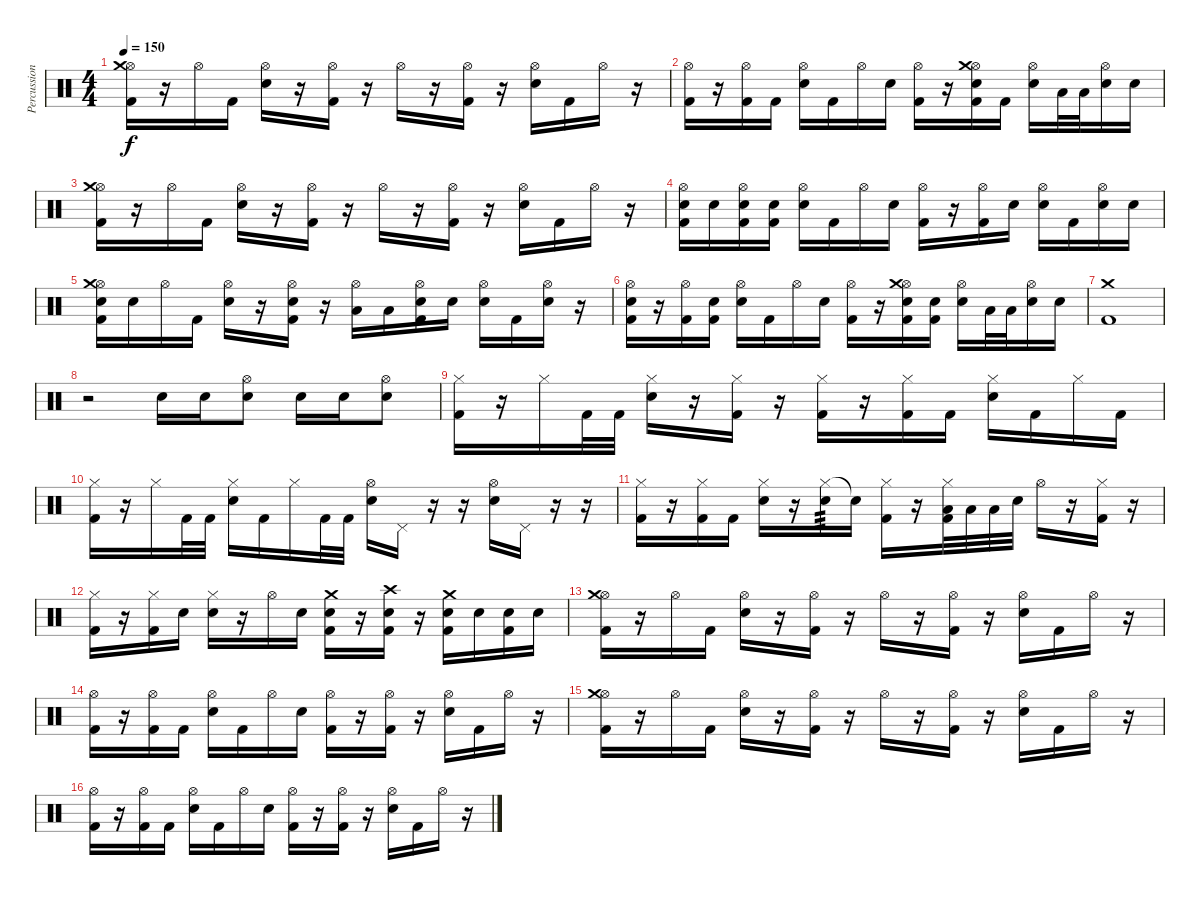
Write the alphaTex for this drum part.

\track ("Percussion" "Percussion") {instrument percussion}
\staff {score}
\articulation defaults
\ts (4 4)
\tempo 150
\clef neutral
\ks c
("Hi-Hat (open)" "Crash medium (hit)" "Kick (hit) 2").16{dy f} r.16 "Hi-Hat (open)".16 "Kick (hit) 2".16 ("Hi-Hat (open)" "Electric Snare (hit)").16 r.16 ("Hi-Hat (open)" "Kick (hit) 2").16 r.16 "Hi-Hat (open)".16 r.16 ("Hi-Hat (open)" "Kick (hit) 2").16 r.16 ("Hi-Hat (open)" "Electric Snare (hit)").16 "Kick (hit) 2".16 "Hi-Hat (open)".16 r.16 |
("Hi-Hat (open)" "Kick (hit) 2").16 r.16 ("Hi-Hat (open)" "Kick (hit) 2").16 "Kick (hit) 2".16 ("Hi-Hat (open)" "Electric Snare (hit)").16 "Kick (hit) 2".16 "Hi-Hat (open)".16 "Electric Snare (hit)".16 ("Hi-Hat (open)" "Kick (hit) 2").16 r.16 ("Hi-Hat (open)" "Crash medium (hit)" "Electric Snare (hit)" "Kick (hit) 2").16 "Kick (hit) 2".16 ("Hi-Hat (open)" "Electric Snare (hit)").16 "Low Tom (hit)".32 "Low Tom (hit)".32 ("Hi-Hat (open)" "Electric Snare (hit)").16 "Electric Snare (hit)".16 |
("Hi-Hat (open)" "Crash medium (hit)" "Kick (hit) 2").16 r.16 "Hi-Hat (open)".16 "Kick (hit) 2".16 ("Hi-Hat (open)" "Electric Snare (hit)").16 r.16 ("Hi-Hat (open)" "Kick (hit) 2").16 r.16 "Hi-Hat (open)".16 r.16 ("Hi-Hat (open)" "Kick (hit) 2").16 r.16 ("Hi-Hat (open)" "Electric Snare (hit)").16 "Kick (hit) 2".16 "Hi-Hat (open)".16 r.16 |
("Hi-Hat (open)" "Electric Snare (hit)" "Kick (hit) 2").16 "Electric Snare (hit)".16 ("Hi-Hat (open)" "Electric Snare (hit)" "Kick (hit) 2").16 ("Electric Snare (hit)" "Kick (hit) 2").16 ("Hi-Hat (open)" "Electric Snare (hit)").16 "Kick (hit) 2".16 "Hi-Hat (open)".16 "Electric Snare (hit)".16 ("Hi-Hat (open)" "Kick (hit) 2").16 r.16 ("Hi-Hat (open)" "Kick (hit) 2").16 "Electric Snare (hit)".16 ("Hi-Hat (open)" "Electric Snare (hit)").16 "Kick (hit) 2".16 ("Hi-Hat (open)" "Electric Snare (hit)").16 "Electric Snare (hit)".16 |
("Hi-Hat (open)" "Crash medium (hit)" "Electric Snare (hit)" "Kick (hit) 2").16 "Electric Snare (hit)".16 "Hi-Hat (open)".16 "Kick (hit) 2".16 ("Hi-Hat (open)" "Electric Snare (hit)").16 r.16 ("Hi-Hat (open)" "Electric Snare (hit)" "Kick (hit) 2").16 r.16 ("Hi-Hat (open)" "Low Tom (hit)").16 "Low Tom (hit)".16 ("Hi-Hat (open)" "Electric Snare (hit)" "Kick (hit) 2").16 "Electric Snare (hit)".16 ("Hi-Hat (open)" "Electric Snare (hit)").16 "Kick (hit) 2".16 ("Hi-Hat (open)" "Electric Snare (hit)").16 r.16 |
("Hi-Hat (open)" "Electric Snare (hit)" "Kick (hit) 2").16 r.16 ("Hi-Hat (open)" "Kick (hit) 2").16 ("Electric Snare (hit)" "Kick (hit) 2").16 ("Hi-Hat (open)" "Electric Snare (hit)").16 "Kick (hit) 2".16 "Hi-Hat (open)".16 "Electric Snare (hit)".16 ("Hi-Hat (open)" "Kick (hit) 2").16 r.16 ("Hi-Hat (open)" "Crash medium (hit)" "Electric Snare (hit)" "Kick (hit) 2").16 ("Electric Snare (hit)" "Kick (hit) 2").16 ("Hi-Hat (open)" "Electric Snare (hit)").16 "Low Tom (hit)".32 "Low Tom (hit)".32 ("Hi-Hat (open)" "Electric Snare (hit)").16 "Electric Snare (hit)".16 |
("Crash medium (hit)" "Kick (hit) 2").1 |
r.2 "Electric Snare (hit)".16 "Electric Snare (hit)".16 ("Hi-Hat (open)" "Electric Snare (hit)").8 "Electric Snare (hit)".16 "Electric Snare (hit)".16 ("Hi-Hat (open)" "Electric Snare (hit)").8 |
("Hi-Hat (closed)" "Kick (hit) 2").16 r.16 "Hi-Hat (closed)".16 "Kick (hit) 2".32 "Kick (hit) 2".32 ("Hi-Hat (closed)" "Electric Snare (hit)").16 r.16 ("Hi-Hat (closed)" "Kick (hit) 2").16 r.16 ("Hi-Hat (closed)" "Kick (hit) 2").16 r.16 ("Hi-Hat (closed)" "Kick (hit) 2").16 "Kick (hit) 2".16 ("Hi-Hat (closed)" "Electric Snare (hit)").16 "Kick (hit) 2".16 "Hi-Hat (closed)".16 "Kick (hit) 2".16 |
("Hi-Hat (closed)" "Kick (hit) 2").16 r.16 "Hi-Hat (closed)".16 "Kick (hit) 2".32 "Kick (hit) 2".32 ("Hi-Hat (closed)" "Electric Snare (hit)").16 "Kick (hit) 2".16 "Hi-Hat (closed)".16 "Kick (hit) 2".32 "Kick (hit) 2".32 ("Hi-Hat (open)" "Electric Snare (hit)").16 "Pedal Hi-Hat (hit)".16 r.16 r.16 ("Hi-Hat (open)" "Electric Snare (hit)").16 "Pedal Hi-Hat (hit)".16 r.16 r.16 |
("Hi-Hat (closed)" "Kick (hit) 2").16 r.16 ("Hi-Hat (closed)" "Kick (hit) 2").16 "Kick (hit) 2".16 ("Hi-Hat (closed)" "Electric Snare (hit)").16 r.16 ("Hi-Hat (closed)" "Electric Snare (hit)").16{tp 3} "Snare (hit)"{t}.16 ("Hi-Hat (closed)" "Kick (hit) 2").16 r.16 ("Hi-Hat (closed)" "Low Tom (hit)" "Kick (hit) 2").32 "Low Tom (hit)".32 "Low Tom (hit)".32 "Electric Snare (hit)".32 "Hi-Hat (open)".16 r.16 ("Hi-Hat (closed)" "Kick (hit) 2").16 r.16 |
("Hi-Hat (closed)" "Kick (hit) 2").16 r.16 ("Hi-Hat (closed)" "Kick (hit) 2").16 "Electric Snare (hit)".16 ("Hi-Hat (closed)" "Electric Snare (hit)").16 r.16 "Hi-Hat (open)".16 "Electric Snare (hit)".16 ("Crash medium (hit)" "Electric Snare (hit)" "Kick (hit) 2").16 r.16 ("Crash high (hit)" "Electric Snare (hit)" "Kick (hit) 2").16 r.16 ("Crash medium (hit)" "Electric Snare (hit)" "Kick (hit) 2").16 "Electric Snare (hit)".16 ("Electric Snare (hit)" "Kick (hit) 2").16 "Electric Snare (hit)".16 |
("Hi-Hat (open)" "Crash medium (hit)" "Kick (hit) 2").16 r.16 "Hi-Hat (open)".16 "Kick (hit) 2".16 ("Hi-Hat (open)" "Electric Snare (hit)").16 r.16 ("Hi-Hat (open)" "Kick (hit) 2").16 r.16 "Hi-Hat (open)".16 r.16 ("Hi-Hat (open)" "Kick (hit) 2").16 r.16 ("Hi-Hat (open)" "Electric Snare (hit)").16 "Kick (hit) 2".16 "Hi-Hat (open)".16 r.16 |
("Hi-Hat (open)" "Kick (hit) 2").16 r.16 ("Hi-Hat (open)" "Kick (hit) 2").16 "Kick (hit) 2".16 ("Hi-Hat (open)" "Electric Snare (hit)").16 "Kick (hit) 2".16 "Hi-Hat (open)".16 "Electric Snare (hit)".16 ("Hi-Hat (open)" "Kick (hit) 2").16 r.16 ("Hi-Hat (open)" "Kick (hit) 2").16 r.16 ("Hi-Hat (open)" "Electric Snare (hit)").16 "Kick (hit) 2".16 "Hi-Hat (open)".16 r.16 |
("Hi-Hat (open)" "Crash medium (hit)" "Kick (hit) 2").16 r.16 "Hi-Hat (open)".16 "Kick (hit) 2".16 ("Hi-Hat (open)" "Electric Snare (hit)").16 r.16 ("Hi-Hat (open)" "Kick (hit) 2").16 r.16 "Hi-Hat (open)".16 r.16 ("Hi-Hat (open)" "Kick (hit) 2").16 r.16 ("Hi-Hat (open)" "Electric Snare (hit)").16 "Kick (hit) 2".16 "Hi-Hat (open)".16 r.16 |
("Hi-Hat (open)" "Kick (hit) 2").16 r.16 ("Hi-Hat (open)" "Kick (hit) 2").16 "Kick (hit) 2".16 ("Hi-Hat (open)" "Electric Snare (hit)").16 "Kick (hit) 2".16 "Hi-Hat (open)".16 "Electric Snare (hit)".16 ("Hi-Hat (open)" "Kick (hit) 2").16 r.16 ("Hi-Hat (open)" "Kick (hit) 2").16 r.16 ("Hi-Hat (open)" "Electric Snare (hit)").16 "Kick (hit) 2".16 "Hi-Hat (open)".16 r.16
